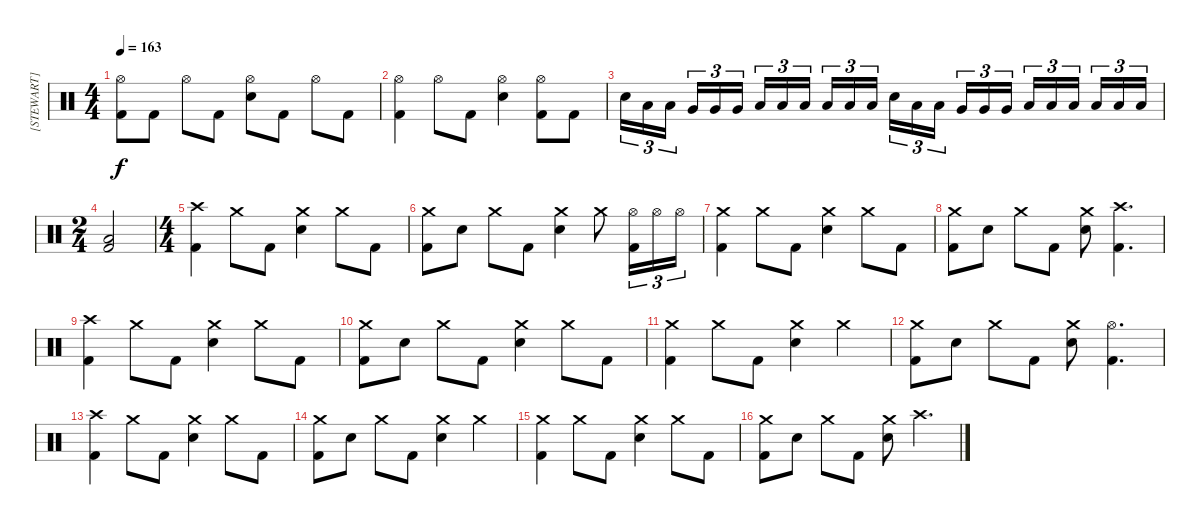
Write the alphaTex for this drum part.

\track ("[STEWART]" "[STEWART]") {instrument percussion}
\staff {score}
\articulation defaults
\ts (4 4)
\tempo 163
\clef neutral
\ks c
("Hi-Hat (open)" "Kick (hit) 2").8{dy f} "Kick (hit) 2".8 "Hi-Hat (open)".8 "Kick (hit) 2".8 ("Hi-Hat (open)" "Electric Snare (hit)").8 "Kick (hit) 2".8 "Hi-Hat (open)".8 "Kick (hit) 2".8 |
("Hi-Hat (open)" "Kick (hit) 2").4 "Hi-Hat (open)".8 "Kick (hit) 2".8 ("Hi-Hat (open)" "Electric Snare (hit)").4 ("Hi-Hat (open)" "Kick (hit) 2").8 "Kick (hit) 2".8 |
"Electric Snare (hit)".16{tu (3 2)} "Low Tom (hit)".16{tu (3 2)} "Low Tom (hit)".16{tu (3 2)} "Very Low Tom (hit)".16{tu (3 2)} "Very Low Tom (hit)".16{tu (3 2)} "Very Low Tom (hit)".16{tu (3 2)} "Low Floor Tom (hit)".16{tu (3 2)} "Low Floor Tom (hit)".16{tu (3 2)} "Low Floor Tom (hit)".16{tu (3 2)} "Low Floor Tom (hit)".16{tu (3 2)} "Low Floor Tom (hit)".16{tu (3 2)} "Low Floor Tom (hit)".16{tu (3 2)} "Electric Snare (hit)".16{tu (3 2)} "Low Tom (hit)".16{tu (3 2)} "Low Tom (hit)".16{tu (3 2)} "Very Low Tom (hit)".16{tu (3 2)} "Very Low Tom (hit)".16{tu (3 2)} "Very Low Tom (hit)".16{tu (3 2)} "Low Floor Tom (hit)".16{tu (3 2)} "Low Floor Tom (hit)".16{tu (3 2)} "Low Floor Tom (hit)".16{tu (3 2)} "Low Floor Tom (hit)".16{tu (3 2)} "Low Floor Tom (hit)".16{tu (3 2)} "Low Floor Tom (hit)".16{tu (3 2)} |
\ts (2 4)
("Low Floor Tom (hit)" "Kick (hit) 2").2 |
\ts (4 4)
("Crash high (hit)" "Kick (hit) 2").4 "Crash medium (hit)".8 "Kick (hit) 2".8 ("Crash medium (hit)" "Electric Snare (hit)").4 "Crash medium (hit)".8 "Kick (hit) 2".8 |
("Crash medium (hit)" "Kick (hit) 2").8 "Electric Snare (hit)".8 "Crash medium (hit)".8 "Kick (hit) 2".8 ("Crash medium (hit)" "Electric Snare (hit)").4 "Crash medium (hit)".8 ("Hi-Hat (open)" "Kick (hit) 2").16{tu (3 2)} "Hi-Hat (open)".16{tu (3 2)} "Hi-Hat (open)".16{tu (3 2)} |
("Crash medium (hit)" "Kick (hit) 2").4 "Crash medium (hit)".8 "Kick (hit) 2".8 ("Crash medium (hit)" "Electric Snare (hit)").4 "Crash medium (hit)".8 "Kick (hit) 2".8 |
("Crash medium (hit)" "Kick (hit) 2").8 "Electric Snare (hit)".8 "Crash medium (hit)".8 "Kick (hit) 2".8 ("Crash medium (hit)" "Electric Snare (hit)").8 ("Crash high (hit)" "Kick (hit) 2").4{d} |
("Crash high (hit)" "Kick (hit) 2").4 "Crash medium (hit)".8 "Kick (hit) 2".8 ("Crash medium (hit)" "Electric Snare (hit)").4 "Crash medium (hit)".8 "Kick (hit) 2".8 |
("Crash medium (hit)" "Kick (hit) 2").8 "Electric Snare (hit)".8 "Crash medium (hit)".8 "Kick (hit) 2".8 ("Crash medium (hit)" "Electric Snare (hit)").4 "Crash medium (hit)".8 "Kick (hit) 2".8 |
("Crash medium (hit)" "Kick (hit) 2").4 "Crash medium (hit)".8 "Kick (hit) 2".8 ("Crash medium (hit)" "Electric Snare (hit)").4 "Crash medium (hit)".4 |
("Crash medium (hit)" "Kick (hit) 2").8 "Electric Snare (hit)".8 "Crash medium (hit)".8 "Kick (hit) 2".8 ("Crash medium (hit)" "Electric Snare (hit)").8 ("Hi-Hat (open)" "Kick (hit) 2").4{d} |
("Crash high (hit)" "Kick (hit) 2").4 "Crash medium (hit)".8 "Kick (hit) 2".8 ("Crash medium (hit)" "Electric Snare (hit)").4 "Crash medium (hit)".8 "Kick (hit) 2".8 |
("Crash medium (hit)" "Kick (hit) 2").8 "Electric Snare (hit)".8 "Crash medium (hit)".8 "Kick (hit) 2".8 ("Crash medium (hit)" "Electric Snare (hit)").4 "Crash medium (hit)".4 |
("Crash medium (hit)" "Kick (hit) 2").4 "Crash medium (hit)".8 "Kick (hit) 2".8 ("Crash medium (hit)" "Electric Snare (hit)").4 "Crash medium (hit)".8 "Kick (hit) 2".8 |
("Crash medium (hit)" "Kick (hit) 2").8 "Electric Snare (hit)".8 "Crash medium (hit)".8 "Kick (hit) 2".8 ("Crash medium (hit)" "Electric Snare (hit)").8 "Crash high (hit)".4{d}
